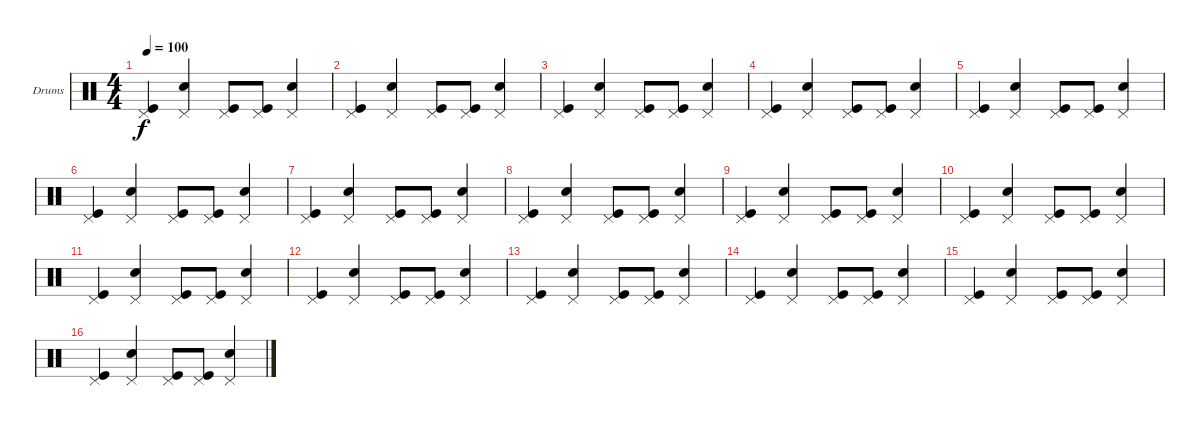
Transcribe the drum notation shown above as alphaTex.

\bracketExtendMode groupsimilarinstruments
\firstSystemTrackNameOrientation horizontal
\otherSystemsTrackNameOrientation horizontal
\track ("Drumkit" "Drums") {instrument percussion}
\staff {score}
\articulation defaults
\ts (4 4)
\tempo 100
\clef neutral
\ks c
("Pedal Hi-Hat (hit)" "Kick (hit)").4{dy f} ("Pedal Hi-Hat (hit)" "Snare (hit) 2").4 ("Pedal Hi-Hat (hit)" "Kick (hit)").8 ("Pedal Hi-Hat (hit)" "Kick (hit)").8 ("Pedal Hi-Hat (hit)" "Snare (hit) 2").4 |
("Pedal Hi-Hat (hit)" "Kick (hit)").4 ("Pedal Hi-Hat (hit)" "Snare (hit) 2").4 ("Pedal Hi-Hat (hit)" "Kick (hit)").8 ("Pedal Hi-Hat (hit)" "Kick (hit)").8 ("Pedal Hi-Hat (hit)" "Snare (hit) 2").4 |
("Pedal Hi-Hat (hit)" "Kick (hit)").4 ("Pedal Hi-Hat (hit)" "Snare (hit) 2").4 ("Pedal Hi-Hat (hit)" "Kick (hit)").8 ("Pedal Hi-Hat (hit)" "Kick (hit)").8 ("Pedal Hi-Hat (hit)" "Snare (hit) 2").4 |
("Pedal Hi-Hat (hit)" "Kick (hit)").4 ("Pedal Hi-Hat (hit)" "Snare (hit) 2").4 ("Pedal Hi-Hat (hit)" "Kick (hit)").8 ("Pedal Hi-Hat (hit)" "Kick (hit)").8 ("Pedal Hi-Hat (hit)" "Snare (hit) 2").4 |
("Pedal Hi-Hat (hit)" "Kick (hit)").4 ("Pedal Hi-Hat (hit)" "Snare (hit) 2").4 ("Pedal Hi-Hat (hit)" "Kick (hit)").8 ("Pedal Hi-Hat (hit)" "Kick (hit)").8 ("Pedal Hi-Hat (hit)" "Snare (hit) 2").4 |
("Pedal Hi-Hat (hit)" "Kick (hit)").4 ("Pedal Hi-Hat (hit)" "Snare (hit) 2").4 ("Pedal Hi-Hat (hit)" "Kick (hit)").8 ("Pedal Hi-Hat (hit)" "Kick (hit)").8 ("Pedal Hi-Hat (hit)" "Snare (hit) 2").4 |
("Pedal Hi-Hat (hit)" "Kick (hit)").4 ("Pedal Hi-Hat (hit)" "Snare (hit) 2").4 ("Pedal Hi-Hat (hit)" "Kick (hit)").8 ("Pedal Hi-Hat (hit)" "Kick (hit)").8 ("Pedal Hi-Hat (hit)" "Snare (hit) 2").4 |
("Pedal Hi-Hat (hit)" "Kick (hit)").4 ("Pedal Hi-Hat (hit)" "Snare (hit) 2").4 ("Pedal Hi-Hat (hit)" "Kick (hit)").8 ("Pedal Hi-Hat (hit)" "Kick (hit)").8 ("Pedal Hi-Hat (hit)" "Snare (hit) 2").4 |
("Pedal Hi-Hat (hit)" "Kick (hit)").4 ("Pedal Hi-Hat (hit)" "Snare (hit) 2").4 ("Pedal Hi-Hat (hit)" "Kick (hit)").8 ("Pedal Hi-Hat (hit)" "Kick (hit)").8 ("Pedal Hi-Hat (hit)" "Snare (hit) 2").4 |
("Pedal Hi-Hat (hit)" "Kick (hit)").4 ("Pedal Hi-Hat (hit)" "Snare (hit) 2").4 ("Pedal Hi-Hat (hit)" "Kick (hit)").8 ("Pedal Hi-Hat (hit)" "Kick (hit)").8 ("Pedal Hi-Hat (hit)" "Snare (hit) 2").4 |
("Pedal Hi-Hat (hit)" "Kick (hit)").4 ("Pedal Hi-Hat (hit)" "Snare (hit) 2").4 ("Pedal Hi-Hat (hit)" "Kick (hit)").8 ("Pedal Hi-Hat (hit)" "Kick (hit)").8 ("Pedal Hi-Hat (hit)" "Snare (hit) 2").4 |
("Pedal Hi-Hat (hit)" "Kick (hit)").4 ("Pedal Hi-Hat (hit)" "Snare (hit) 2").4 ("Pedal Hi-Hat (hit)" "Kick (hit)").8 ("Pedal Hi-Hat (hit)" "Kick (hit)").8 ("Pedal Hi-Hat (hit)" "Snare (hit) 2").4 |
("Pedal Hi-Hat (hit)" "Kick (hit)").4 ("Pedal Hi-Hat (hit)" "Snare (hit) 2").4 ("Pedal Hi-Hat (hit)" "Kick (hit)").8 ("Pedal Hi-Hat (hit)" "Kick (hit)").8 ("Pedal Hi-Hat (hit)" "Snare (hit) 2").4 |
("Pedal Hi-Hat (hit)" "Kick (hit)").4 ("Pedal Hi-Hat (hit)" "Snare (hit) 2").4 ("Pedal Hi-Hat (hit)" "Kick (hit)").8 ("Pedal Hi-Hat (hit)" "Kick (hit)").8 ("Pedal Hi-Hat (hit)" "Snare (hit) 2").4 |
("Pedal Hi-Hat (hit)" "Kick (hit)").4 ("Pedal Hi-Hat (hit)" "Snare (hit) 2").4 ("Pedal Hi-Hat (hit)" "Kick (hit)").8 ("Pedal Hi-Hat (hit)" "Kick (hit)").8 ("Pedal Hi-Hat (hit)" "Snare (hit) 2").4 |
("Pedal Hi-Hat (hit)" "Kick (hit)").4 ("Pedal Hi-Hat (hit)" "Snare (hit) 2").4 ("Pedal Hi-Hat (hit)" "Kick (hit)").8 ("Pedal Hi-Hat (hit)" "Kick (hit)").8 ("Pedal Hi-Hat (hit)" "Snare (hit) 2").4
